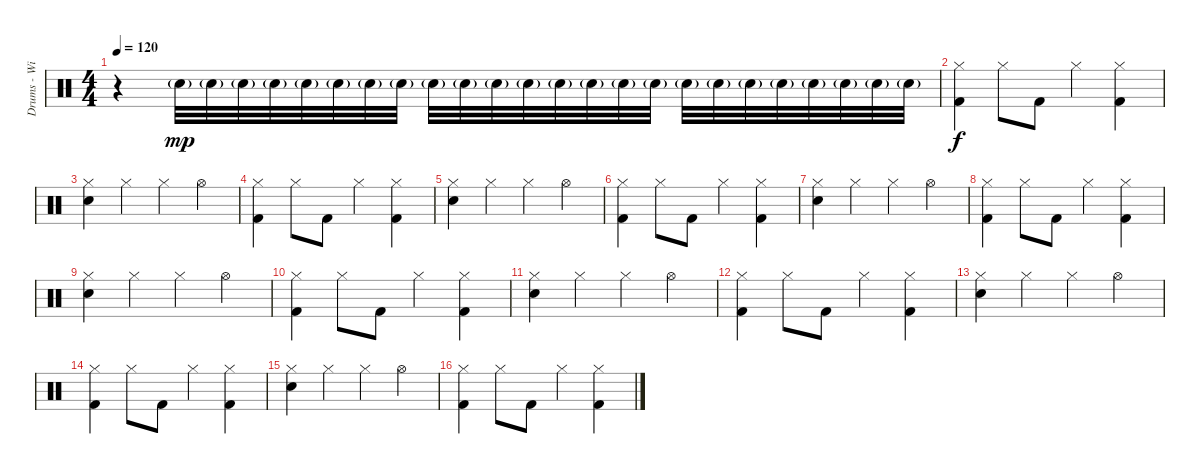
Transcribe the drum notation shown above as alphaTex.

\track ("Drums - Willi Wurm" "Drums - Wi") {instrument percussion}
\staff {score}
\articulation defaults
\ts (4 4)
\tempo 120
\clef neutral
\ks c
r.4{dy mp} "Snare (hit) 2"{g}.32 "Snare (hit) 2"{g}.32 "Snare (hit) 2"{g}.32 "Snare (hit) 2"{g}.32 "Snare (hit) 2"{g}.32 "Snare (hit) 2"{g}.32 "Snare (hit) 2"{g}.32 "Snare (hit) 2"{g}.32 "Snare (hit) 2"{g}.32 "Snare (hit) 2"{g}.32 "Snare (hit) 2"{g}.32 "Snare (hit) 2"{g}.32 "Snare (hit) 2"{g}.32 "Snare (hit) 2"{g}.32 "Snare (hit) 2"{g}.32 "Snare (hit) 2"{g}.32 "Snare (hit) 2"{g}.32 "Snare (hit) 2"{g}.32 "Snare (hit) 2"{g}.32 "Snare (hit) 2"{g}.32 "Snare (hit) 2"{g}.32 "Snare (hit) 2"{g}.32 "Snare (hit) 2"{g}.32 "Snare (hit) 2"{g}.32 |
("Hi-Hat (closed)" "Kick (hit) 2").4{dy f} "Hi-Hat (closed)".8 "Kick (hit) 2".8 "Hi-Hat (closed)".4 ("Hi-Hat (closed)" "Kick (hit) 2").4 |
("Hi-Hat (closed)" "Snare (hit) 2").4 "Hi-Hat (closed)".4 "Hi-Hat (closed)".4 "Hi-Hat (open)".4 |
("Hi-Hat (closed)" "Kick (hit) 2").4 "Hi-Hat (closed)".8 "Kick (hit) 2".8 "Hi-Hat (closed)".4 ("Hi-Hat (closed)" "Kick (hit) 2").4 |
("Hi-Hat (closed)" "Snare (hit) 2").4 "Hi-Hat (closed)".4 "Hi-Hat (closed)".4 "Hi-Hat (open)".4 |
("Hi-Hat (closed)" "Kick (hit) 2").4 "Hi-Hat (closed)".8 "Kick (hit) 2".8 "Hi-Hat (closed)".4 ("Hi-Hat (closed)" "Kick (hit) 2").4 |
("Hi-Hat (closed)" "Snare (hit) 2").4 "Hi-Hat (closed)".4 "Hi-Hat (closed)".4 "Hi-Hat (open)".4 |
("Hi-Hat (closed)" "Kick (hit) 2").4 "Hi-Hat (closed)".8 "Kick (hit) 2".8 "Hi-Hat (closed)".4 ("Hi-Hat (closed)" "Kick (hit) 2").4 |
("Hi-Hat (closed)" "Snare (hit) 2").4 "Hi-Hat (closed)".4 "Hi-Hat (closed)".4 "Hi-Hat (open)".4 |
("Hi-Hat (closed)" "Kick (hit) 2").4 "Hi-Hat (closed)".8 "Kick (hit) 2".8 "Hi-Hat (closed)".4 ("Hi-Hat (closed)" "Kick (hit) 2").4 |
("Hi-Hat (closed)" "Snare (hit) 2").4 "Hi-Hat (closed)".4 "Hi-Hat (closed)".4 "Hi-Hat (open)".4 |
("Hi-Hat (closed)" "Kick (hit) 2").4 "Hi-Hat (closed)".8 "Kick (hit) 2".8 "Hi-Hat (closed)".4 ("Hi-Hat (closed)" "Kick (hit) 2").4 |
("Hi-Hat (closed)" "Snare (hit) 2").4 "Hi-Hat (closed)".4 "Hi-Hat (closed)".4 "Hi-Hat (open)".4 |
("Hi-Hat (closed)" "Kick (hit) 2").4 "Hi-Hat (closed)".8 "Kick (hit) 2".8 "Hi-Hat (closed)".4 ("Hi-Hat (closed)" "Kick (hit) 2").4 |
("Hi-Hat (closed)" "Snare (hit) 2").4 "Hi-Hat (closed)".4 "Hi-Hat (closed)".4 "Hi-Hat (open)".4 |
("Hi-Hat (closed)" "Kick (hit) 2").4 "Hi-Hat (closed)".8 "Kick (hit) 2".8 "Hi-Hat (closed)".4 ("Hi-Hat (closed)" "Kick (hit) 2").4
